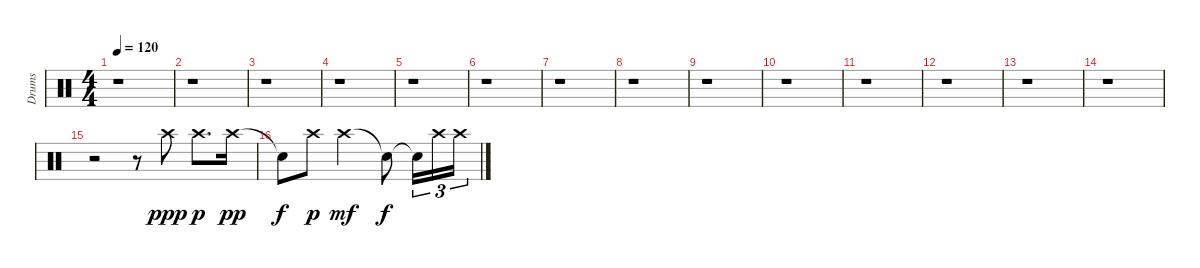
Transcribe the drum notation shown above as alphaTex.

\track ("Drums" "Drums") {instrument percussion}
\staff {score}
\articulation defaults
\ts (4 4)
\tempo 120
\clef neutral
\ks c
r.1{dy f} |
r.1 |
r.1 |
r.1 |
r.1 |
r.1 |
r.1 |
r.1 |
r.1 |
r.1 |
r.1 |
r.1 |
r.1 |
r.1 |
r.2 r.8 "Crash high (hit)".8{dy ppp} "Crash high (hit)".8{d dy p} "Crash high (hit)".16{dy pp} |
"Snare (hit)"{t}.8{dy f} "Crash high (hit)".8{dy p} "Crash high (hit)".2{dy mf} "Snare (hit)"{t}.8{dy f} "Snare (hit)"{t}.16{tu (3 2)} "Crash high (hit)".16{tu (3 2)} "Crash high (hit)".16{tu (3 2)}
